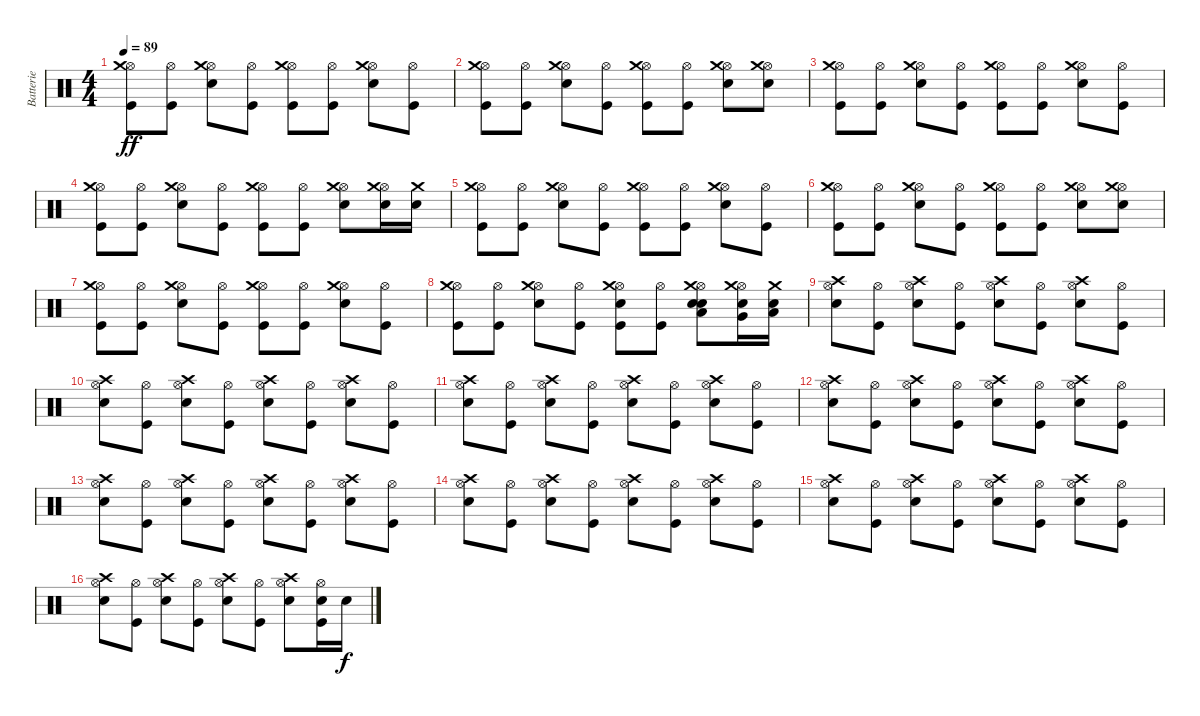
\track ("Batterie" "Batterie") {instrument percussion}
\staff {score}
\articulation defaults
\ts (4 4)
\tempo 89
\clef neutral
\ks c
("Kick (hit)" "Hi-Hat (open)" "Crash medium (hit)").8{dy ff} ("Kick (hit)" "Hi-Hat (open)").8 ("Electric Snare (hit)" "Hi-Hat (open)" "Crash medium (hit)").8 ("Kick (hit)" "Hi-Hat (open)").8 ("Kick (hit)" "Hi-Hat (open)" "Crash medium (hit)").8 ("Kick (hit)" "Hi-Hat (open)").8 ("Electric Snare (hit)" "Hi-Hat (open)" "Crash medium (hit)").8 ("Kick (hit)" "Hi-Hat (open)").8 |
("Kick (hit)" "Hi-Hat (open)" "Crash medium (hit)").8 ("Kick (hit)" "Hi-Hat (open)").8 ("Electric Snare (hit)" "Hi-Hat (open)" "Crash medium (hit)").8 ("Kick (hit)" "Hi-Hat (open)").8 ("Kick (hit)" "Hi-Hat (open)" "Crash medium (hit)").8 ("Kick (hit)" "Hi-Hat (open)").8 ("Electric Snare (hit)" "Hi-Hat (open)" "Crash medium (hit)").8 ("Electric Snare (hit)" "Hi-Hat (open)" "Crash medium (hit)").8 |
("Kick (hit)" "Hi-Hat (open)" "Crash medium (hit)").8 ("Kick (hit)" "Hi-Hat (open)").8 ("Electric Snare (hit)" "Hi-Hat (open)" "Crash medium (hit)").8 ("Kick (hit)" "Hi-Hat (open)").8 ("Kick (hit)" "Hi-Hat (open)" "Crash medium (hit)").8 ("Kick (hit)" "Hi-Hat (open)").8 ("Electric Snare (hit)" "Hi-Hat (open)" "Crash medium (hit)").8 ("Kick (hit)" "Hi-Hat (open)").8 |
("Kick (hit)" "Hi-Hat (open)" "Crash medium (hit)").8 ("Kick (hit)" "Hi-Hat (open)").8 ("Electric Snare (hit)" "Hi-Hat (open)" "Crash medium (hit)").8 ("Kick (hit)" "Hi-Hat (open)").8 ("Kick (hit)" "Hi-Hat (open)" "Crash medium (hit)").8 ("Kick (hit)" "Hi-Hat (open)").8 ("Electric Snare (hit)" "Hi-Hat (open)" "Crash medium (hit)").8 ("Electric Snare (hit)" "Hi-Hat (open)" "Crash medium (hit)").16 ("Electric Snare (hit)" "Crash medium (hit)").16 |
("Kick (hit)" "Hi-Hat (open)" "Crash medium (hit)").8 ("Kick (hit)" "Hi-Hat (open)").8 ("Electric Snare (hit)" "Hi-Hat (open)" "Crash medium (hit)").8 ("Kick (hit)" "Hi-Hat (open)").8 ("Kick (hit)" "Hi-Hat (open)" "Crash medium (hit)").8 ("Kick (hit)" "Hi-Hat (open)").8 ("Electric Snare (hit)" "Hi-Hat (open)" "Crash medium (hit)").8 ("Kick (hit)" "Hi-Hat (open)").8 |
("Kick (hit)" "Hi-Hat (open)" "Crash medium (hit)").8 ("Kick (hit)" "Hi-Hat (open)").8 ("Electric Snare (hit)" "Hi-Hat (open)" "Crash medium (hit)").8 ("Kick (hit)" "Hi-Hat (open)").8 ("Kick (hit)" "Hi-Hat (open)" "Crash medium (hit)").8 ("Kick (hit)" "Hi-Hat (open)").8 ("Electric Snare (hit)" "Hi-Hat (open)" "Crash medium (hit)").8 ("Electric Snare (hit)" "Hi-Hat (open)" "Crash medium (hit)").8 |
("Kick (hit)" "Hi-Hat (open)" "Crash medium (hit)").8 ("Kick (hit)" "Hi-Hat (open)").8 ("Electric Snare (hit)" "Hi-Hat (open)" "Crash medium (hit)").8 ("Kick (hit)" "Hi-Hat (open)").8 ("Kick (hit)" "Hi-Hat (open)" "Crash medium (hit)").8 ("Kick (hit)" "Hi-Hat (open)").8 ("Electric Snare (hit)" "Hi-Hat (open)" "Crash medium (hit)").8 ("Kick (hit)" "Hi-Hat (open)").8 |
("Kick (hit)" "Hi-Hat (open)" "Crash medium (hit)").8 ("Kick (hit)" "Hi-Hat (open)").8 ("Electric Snare (hit)" "Hi-Hat (open)" "Crash medium (hit)").8 ("Kick (hit)" "Hi-Hat (open)").8 ("Kick (hit)" "Hi-Hat (open)" "Crash medium (hit)" "Electric Snare (hit)").8 ("Kick (hit)" "Hi-Hat (open)").8 ("Electric Snare (hit)" "Hi-Hat (open)" "Crash medium (hit)" "Electric Snare (hit)" "Low Tom (hit)").8 ("Electric Snare (hit)" "Hi-Hat (open)" "Crash medium (hit)" "Very Low Tom (hit)").16 ("Electric Snare (hit)" "Crash medium (hit)" "Low Floor Tom (hit)").16 |
("Electric Snare (hit)" "Hi-Hat (open)" "Crash high (hit)").8 ("Kick (hit)" "Hi-Hat (open)").8 ("Electric Snare (hit)" "Hi-Hat (open)" "Crash high (hit)").8 ("Kick (hit)" "Hi-Hat (open)").8 ("Electric Snare (hit)" "Hi-Hat (open)" "Crash high (hit)").8 ("Kick (hit)" "Hi-Hat (open)").8 ("Electric Snare (hit)" "Hi-Hat (open)" "Crash high (hit)").8 ("Kick (hit)" "Hi-Hat (open)").8 |
("Electric Snare (hit)" "Hi-Hat (open)" "Crash high (hit)").8 ("Kick (hit)" "Hi-Hat (open)").8 ("Electric Snare (hit)" "Hi-Hat (open)" "Crash high (hit)").8 ("Kick (hit)" "Hi-Hat (open)").8 ("Electric Snare (hit)" "Hi-Hat (open)" "Crash high (hit)").8 ("Kick (hit)" "Hi-Hat (open)").8 ("Electric Snare (hit)" "Hi-Hat (open)" "Crash high (hit)").8 ("Kick (hit)" "Hi-Hat (open)").8 |
("Electric Snare (hit)" "Hi-Hat (open)" "Crash high (hit)").8 ("Kick (hit)" "Hi-Hat (open)").8 ("Electric Snare (hit)" "Hi-Hat (open)" "Crash high (hit)").8 ("Kick (hit)" "Hi-Hat (open)").8 ("Electric Snare (hit)" "Hi-Hat (open)" "Crash high (hit)").8 ("Kick (hit)" "Hi-Hat (open)").8 ("Electric Snare (hit)" "Hi-Hat (open)" "Crash high (hit)").8 ("Kick (hit)" "Hi-Hat (open)").8 |
("Electric Snare (hit)" "Hi-Hat (open)" "Crash high (hit)").8 ("Kick (hit)" "Hi-Hat (open)").8 ("Electric Snare (hit)" "Hi-Hat (open)" "Crash high (hit)").8 ("Kick (hit)" "Hi-Hat (open)").8 ("Electric Snare (hit)" "Hi-Hat (open)" "Crash high (hit)").8 ("Kick (hit)" "Hi-Hat (open)").8 ("Electric Snare (hit)" "Hi-Hat (open)" "Crash high (hit)").8 ("Kick (hit)" "Hi-Hat (open)").8 |
("Electric Snare (hit)" "Hi-Hat (open)" "Crash high (hit)").8 ("Kick (hit)" "Hi-Hat (open)").8 ("Electric Snare (hit)" "Hi-Hat (open)" "Crash high (hit)").8 ("Kick (hit)" "Hi-Hat (open)").8 ("Electric Snare (hit)" "Hi-Hat (open)" "Crash high (hit)").8 ("Kick (hit)" "Hi-Hat (open)").8 ("Electric Snare (hit)" "Hi-Hat (open)" "Crash high (hit)").8 ("Kick (hit)" "Hi-Hat (open)").8 |
("Electric Snare (hit)" "Hi-Hat (open)" "Crash high (hit)").8 ("Kick (hit)" "Hi-Hat (open)").8 ("Electric Snare (hit)" "Hi-Hat (open)" "Crash high (hit)").8 ("Kick (hit)" "Hi-Hat (open)").8 ("Electric Snare (hit)" "Hi-Hat (open)" "Crash high (hit)").8 ("Kick (hit)" "Hi-Hat (open)").8 ("Electric Snare (hit)" "Hi-Hat (open)" "Crash high (hit)").8 ("Kick (hit)" "Hi-Hat (open)").8 |
("Electric Snare (hit)" "Hi-Hat (open)" "Crash high (hit)").8 ("Kick (hit)" "Hi-Hat (open)").8 ("Electric Snare (hit)" "Hi-Hat (open)" "Crash high (hit)").8 ("Kick (hit)" "Hi-Hat (open)").8 ("Electric Snare (hit)" "Hi-Hat (open)" "Crash high (hit)").8 ("Kick (hit)" "Hi-Hat (open)").8 ("Electric Snare (hit)" "Hi-Hat (open)" "Crash high (hit)").8 ("Kick (hit)" "Hi-Hat (open)").8 |
("Electric Snare (hit)" "Hi-Hat (open)" "Crash high (hit)").8 ("Kick (hit)" "Hi-Hat (open)").8 ("Electric Snare (hit)" "Hi-Hat (open)" "Crash high (hit)").8 ("Kick (hit)" "Hi-Hat (open)").8 ("Electric Snare (hit)" "Hi-Hat (open)" "Crash high (hit)").8 ("Kick (hit)" "Hi-Hat (open)").8 ("Electric Snare (hit)" "Hi-Hat (open)" "Crash high (hit)").8 ("Kick (hit)" "Hi-Hat (open)" "Electric Snare (hit)").16 "Electric Snare (hit)".16{dy f}
